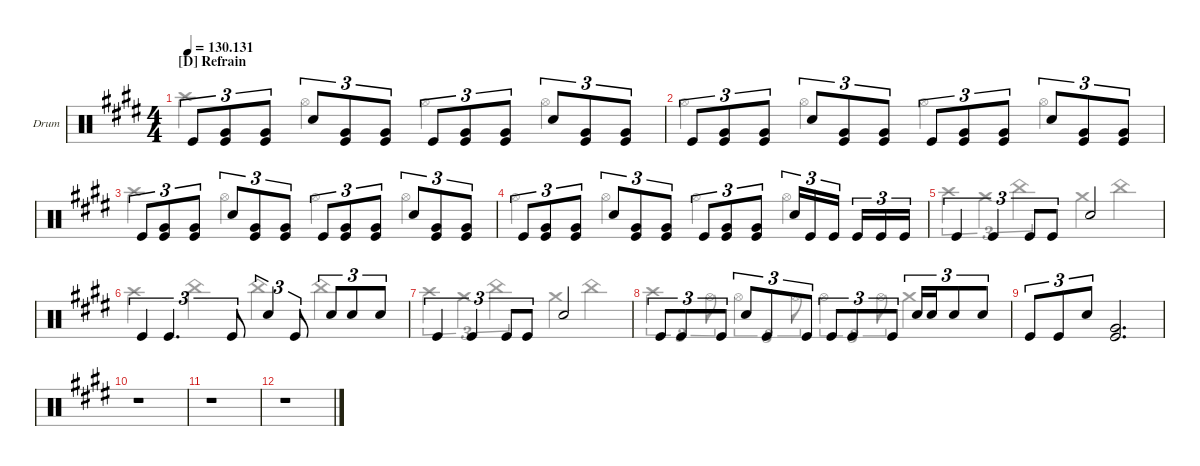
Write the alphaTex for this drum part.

\defaultSystemsLayout 4
\hideDynamics
\bracketExtendMode nobrackets
\firstSystemTrackNameOrientation horizontal
\otherSystemsTrackNameOrientation horizontal
\track ("BATTERIE" "Drum") {defaultSystemsLayout 4 instrument percussion}
\staff {score}
\articulation defaults
\voice
\ts (4 4)
\section ("D" "Refrain")
\tempo
130.131
\accidentals auto
\clef neutral
\ottava regular
\simile none
\ks e "Kick (hit)".8{tu (3 2) dy mf}
("Kick (hit)" "Very Low Tom (hit)").8{tu (3 2)} ("Kick (hit)" "Very Low Tom (hit)").8{tu (3 2)} "Snare (hit) 2".8{tu (3 2)} ("Kick (hit)" "Very Low Tom (hit)").8{tu (3 2)} ("Kick (hit)" "Very Low Tom (hit)").8{tu (3 2)} "Kick (hit)".8{tu (3 2)} ("Kick (hit)" "Very Low Tom (hit)").8{tu (3 2)} ("Kick (hit)" "Very Low Tom (hit)").8{tu (3 2)} "Snare (hit) 2".8{tu (3 2)} ("Kick (hit)" "Very Low Tom (hit)").8{tu (3 2)} ("Kick (hit)" "Very Low Tom (hit)").8{tu (3 2)} |
"Kick (hit)".8{tu (3 2)} ("Kick (hit)" "Very Low Tom (hit)").8{tu (3 2)} ("Kick (hit)" "Very Low Tom (hit)").8{tu (3 2)} "Snare (hit) 2".8{tu (3 2)} ("Kick (hit)" "Very Low Tom (hit)").8{tu (3 2)} ("Kick (hit)" "Very Low Tom (hit)").8{tu (3 2)} "Kick (hit)".8{tu (3 2)} ("Kick (hit)" "Very Low Tom (hit)").8{tu (3 2)} ("Kick (hit)" "Very Low Tom (hit)").8{tu (3 2)} "Snare (hit) 2".8{tu (3 2)} ("Kick (hit)" "Very Low Tom (hit)").8{tu (3 2)} ("Kick (hit)" "Very Low Tom (hit)").8{tu (3 2)} |
"Kick (hit)".8{tu (3 2)} ("Kick (hit)" "Very Low Tom (hit)").8{tu (3 2)} ("Kick (hit)" "Very Low Tom (hit)").8{tu (3 2)} "Snare (hit) 2".8{tu (3 2)} ("Kick (hit)" "Very Low Tom (hit)").8{tu (3 2)} ("Kick (hit)" "Very Low Tom (hit)").8{tu (3 2)} "Kick (hit)".8{tu (3 2)} ("Kick (hit)" "Very Low Tom (hit)").8{tu (3 2)} ("Kick (hit)" "Very Low Tom (hit)").8{tu (3 2)} "Snare (hit) 2".8{tu (3 2)} ("Kick (hit)" "Very Low Tom (hit)").8{tu (3 2)} ("Kick (hit)" "Very Low Tom (hit)").8{tu (3 2)} |
"Kick (hit)".8{tu (3 2)} ("Kick (hit)" "Very Low Tom (hit)").8{tu (3 2)} ("Kick (hit)" "Very Low Tom (hit)").8{tu (3 2)} "Snare (hit) 2".8{tu (3 2)} ("Kick (hit)" "Very Low Tom (hit)").8{tu (3 2)} ("Kick (hit)" "Very Low Tom (hit)").8{tu (3 2)} "Kick (hit)".8{tu (3 2)} ("Kick (hit)" "Very Low Tom (hit)").8{tu (3 2)} ("Kick (hit)" "Very Low Tom (hit)").8{tu (3 2)} "Snare (hit) 2".16{tu (3 2)} "Kick (hit)".16{tu (3 2)} "Kick (hit)".16{tu (3 2)} "Kick (hit)".16{tu (3 2)} "Kick (hit)".16{tu (3 2)} "Kick (hit)".16{tu (3 2)} |
"Kick (hit)".4{tu (3 2)} "Kick (hit)".4{tu (3 2)} "Kick (hit)".8{tu (3 2)} "Kick (hit)".8{tu (3 2)} "Snare (hit) 2".2 |
"Kick (hit)".4{tu (3 2)} "Kick (hit)".4{d tu (3 2)} "Kick (hit)".8{tu (3 2)} "Snare (hit) 2".4{tu (3 2)} "Kick (hit)".8{tu (3 2)} "Snare (hit) 2".8{tu (3 2)} "Snare (hit) 2".8{tu (3 2)} "Snare (hit) 2".8{tu (3 2)} |
"Kick (hit)".4{tu (3 2)} "Kick (hit)".4{tu (3 2)} "Kick (hit)".8{tu (3 2)} "Kick (hit)".8{tu (3 2)} "Snare (hit) 2".2 |
"Kick (hit)".8{tu (3 2)} "Kick (hit)".8{tu (3 2)} "Kick (hit)".8{tu (3 2)} "Snare (hit) 2".8{tu (3 2)} "Kick (hit)".8{tu (3 2)} "Kick (hit)".8{tu (3 2)} "Kick (hit)".8{tu (3 2)} "Kick (hit)".8{tu (3 2)} "Kick (hit)".8{tu (3 2)} "Snare (hit) 2".16{tu (3 2)} "Snare (hit) 2".16{tu (3 2)} "Snare (hit) 2".8{tu (3 2)} "Snare (hit) 2".8{tu (3 2)} |
\scale
0.397681 "Kick (hit)".8{tu (3 2)} "Kick (hit)".8{tu (3 2)} "Snare (hit) 2".8{tu (3 2)} ("Kick (hit)" "Very Low Tom (hit)").2{d} |
\scale
0.196196 r.1 |
\scale
0.196196 r.1 |
\scale
0.209927 r.1
\voice
\clef neutral
\ottava regular
\simile none
\ks e "Crash high (hit)".4{dy mf} "Hi-Hat (open)".4 "Hi-Hat (open)".4 "Hi-Hat (open)".4
|
"Hi-Hat (open)".4 "Hi-Hat (open)".4 "Hi-Hat (open)".4 "Hi-Hat (open)".4 |
"Crash high (hit)".4 "Hi-Hat (open)".4 "Hi-Hat (open)".4 "Hi-Hat (open)".4 |
"Hi-Hat (open)".4 "Hi-Hat (open)".4 "Hi-Hat (open)".4 "Hi-Hat (open)".4 |
"Crash high (hit)".4{tu (3 2)} "Crash medium (hit)".4{tu (3 2)} "China (hit)".4{tu (3 2)} "Crash medium (hit)".4 "China (hit)".4 |
"Crash high (hit)".4 "China (hit)".4 "China (hit)".4 "China (hit)".4 |
"Crash high (hit)".4{tu (3 2)} "Crash medium (hit)".4{tu (3 2)} "China (hit)".4{tu (3 2)} "Crash medium (hit)".4 "China (hit)".4 |
"Crash high (hit)".4{tu (3 2)} "Hi-Hat (open)".8{tu (3 2)} "Hi-Hat (open)".4{tu (3 2)} "Hi-Hat (open)".8{tu (3 2)} "Hi-Hat (open)".4{tu (3 2)} "Hi-Hat (open)".8{tu (3 2)} "Crash medium (hit)".4 |
\scale
0.397681 |
\scale
0.196196 |
\scale
0.196196 |
\scale
0.209927
